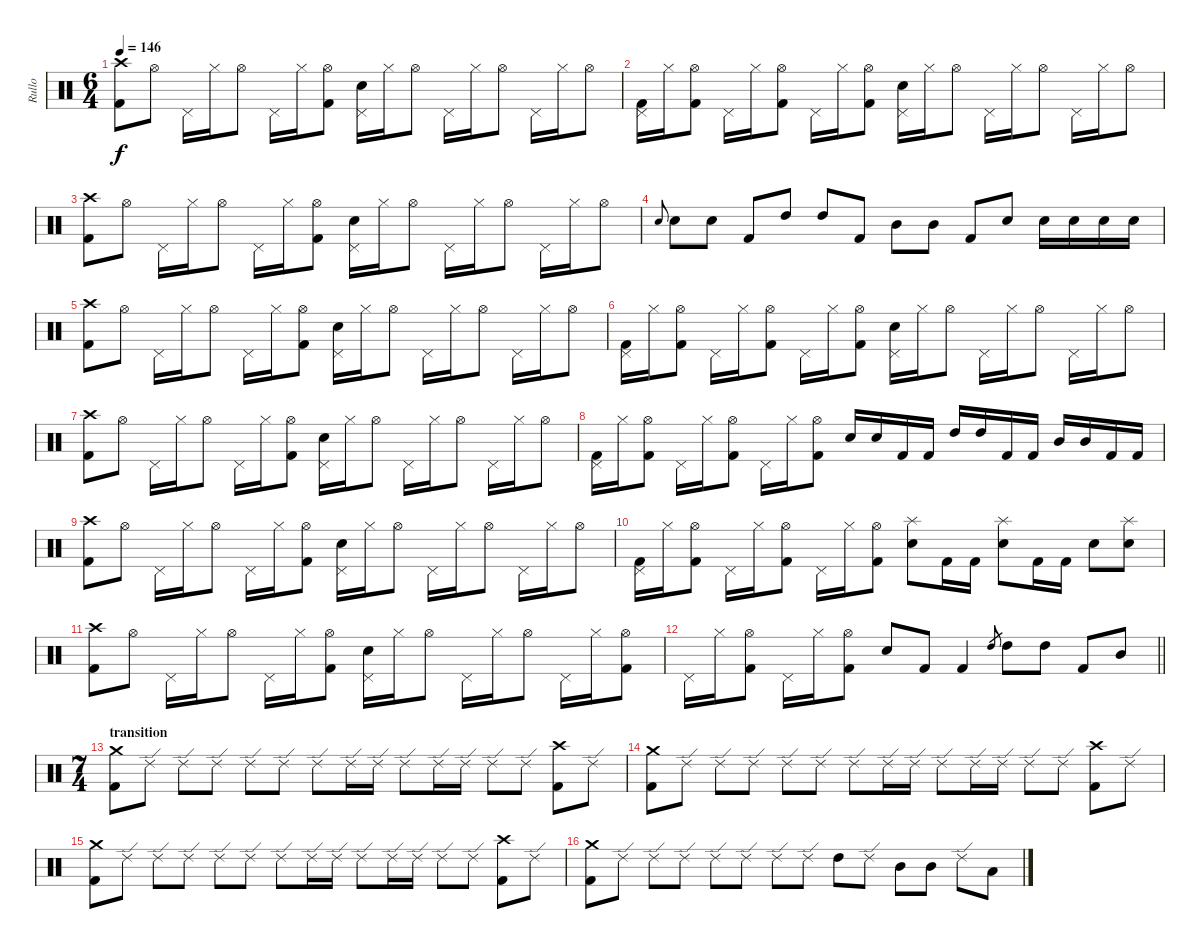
\track ("Rullo" "Rullo") {instrument percussion}
\staff {score}
\articulation defaults
\ts (6 4)
\tempo 146
\clef neutral
\ks c
("Crash high (hit)" "Kick (hit) 2").8{dy f} "Hi-Hat (open)".8 "Pedal Hi-Hat (hit)".16 "Hi-Hat (closed)".16 "Hi-Hat (open)".8 "Pedal Hi-Hat (hit)".16 "Hi-Hat (closed)".16 ("Hi-Hat (open)" "Kick (hit) 2").8 ("Pedal Hi-Hat (hit)" "Electric Snare (hit)").16 "Hi-Hat (closed)".16 "Hi-Hat (open)".8 "Pedal Hi-Hat (hit)".16 "Hi-Hat (closed)".16 "Hi-Hat (open)".8 "Pedal Hi-Hat (hit)".16 "Hi-Hat (closed)".16 "Hi-Hat (open)".8 |
("Pedal Hi-Hat (hit)" "Kick (hit) 2").16 "Hi-Hat (closed)".16 ("Hi-Hat (open)" "Kick (hit) 2").8 "Pedal Hi-Hat (hit)".16 "Hi-Hat (closed)".16 ("Hi-Hat (open)" "Kick (hit) 2").8 "Pedal Hi-Hat (hit)".16 "Hi-Hat (closed)".16 ("Hi-Hat (open)" "Kick (hit) 2").8 ("Pedal Hi-Hat (hit)" "Electric Snare (hit)").16 "Hi-Hat (closed)".16 "Hi-Hat (open)".8 "Pedal Hi-Hat (hit)".16 "Hi-Hat (closed)".16 "Hi-Hat (open)".8 "Pedal Hi-Hat (hit)".16 "Hi-Hat (closed)".16 "Hi-Hat (open)".8 |
("Crash high (hit)" "Kick (hit) 2").8 "Hi-Hat (open)".8 "Pedal Hi-Hat (hit)".16 "Hi-Hat (closed)".16 "Hi-Hat (open)".8 "Pedal Hi-Hat (hit)".16 "Hi-Hat (closed)".16 ("Hi-Hat (open)" "Kick (hit) 2").8 ("Pedal Hi-Hat (hit)" "Electric Snare (hit)").16 "Hi-Hat (closed)".16 "Hi-Hat (open)".8 "Pedal Hi-Hat (hit)".16 "Hi-Hat (closed)".16 "Hi-Hat (open)".8 "Pedal Hi-Hat (hit)".16 "Hi-Hat (closed)".16 "Hi-Hat (open)".8 |
"Electric Snare (hit)".8{gr onbeat} "Electric Snare (hit)".8 "Electric Snare (hit)".8 "Kick (hit) 2".8 "High Tom (hit)".8 "High Tom (hit)".8 "Kick (hit) 2".8 "Mid Tom (hit)".8 "Mid Tom (hit)".8 "Kick (hit) 2".8 "Electric Snare (hit)".8 "Electric Snare (hit)".16 "Electric Snare (hit)".16 "Electric Snare (hit)".16 "Electric Snare (hit)".16 |
("Crash high (hit)" "Kick (hit) 2").8 "Hi-Hat (open)".8 "Pedal Hi-Hat (hit)".16 "Hi-Hat (closed)".16 "Hi-Hat (open)".8 "Pedal Hi-Hat (hit)".16 "Hi-Hat (closed)".16 ("Hi-Hat (open)" "Kick (hit) 2").8 ("Pedal Hi-Hat (hit)" "Electric Snare (hit)").16 "Hi-Hat (closed)".16 "Hi-Hat (open)".8 "Pedal Hi-Hat (hit)".16 "Hi-Hat (closed)".16 "Hi-Hat (open)".8 "Pedal Hi-Hat (hit)".16 "Hi-Hat (closed)".16 "Hi-Hat (open)".8 |
("Pedal Hi-Hat (hit)" "Kick (hit) 2").16 "Hi-Hat (closed)".16 ("Hi-Hat (open)" "Kick (hit) 2").8 "Pedal Hi-Hat (hit)".16 "Hi-Hat (closed)".16 ("Hi-Hat (open)" "Kick (hit) 2").8 "Pedal Hi-Hat (hit)".16 "Hi-Hat (closed)".16 ("Hi-Hat (open)" "Kick (hit) 2").8 ("Pedal Hi-Hat (hit)" "Electric Snare (hit)").16 "Hi-Hat (closed)".16 "Hi-Hat (open)".8 "Pedal Hi-Hat (hit)".16 "Hi-Hat (closed)".16 "Hi-Hat (open)".8 "Pedal Hi-Hat (hit)".16 "Hi-Hat (closed)".16 "Hi-Hat (open)".8 |
("Crash high (hit)" "Kick (hit) 2").8 "Hi-Hat (open)".8 "Pedal Hi-Hat (hit)".16 "Hi-Hat (closed)".16 "Hi-Hat (open)".8 "Pedal Hi-Hat (hit)".16 "Hi-Hat (closed)".16 ("Hi-Hat (open)" "Kick (hit) 2").8 ("Pedal Hi-Hat (hit)" "Electric Snare (hit)").16 "Hi-Hat (closed)".16 "Hi-Hat (open)".8 "Pedal Hi-Hat (hit)".16 "Hi-Hat (closed)".16 "Hi-Hat (open)".8 "Pedal Hi-Hat (hit)".16 "Hi-Hat (closed)".16 "Hi-Hat (open)".8 |
("Pedal Hi-Hat (hit)" "Kick (hit) 2").16 "Hi-Hat (closed)".16 ("Hi-Hat (open)" "Kick (hit) 2").8 "Pedal Hi-Hat (hit)".16 "Hi-Hat (closed)".16 ("Hi-Hat (open)" "Kick (hit) 2").8 "Pedal Hi-Hat (hit)".16 "Hi-Hat (closed)".16 ("Hi-Hat (open)" "Kick (hit) 2").8 "Electric Snare (hit)".16 "Electric Snare (hit)".16 "Kick (hit) 2".16 "Kick (hit) 2".16 "High Tom (hit)".16 "High Tom (hit)".16 "Kick (hit) 2".16 "Kick (hit) 2".16 "Mid Tom (hit)".16 "Mid Tom (hit)".16 "Kick (hit) 2".16 "Kick (hit) 2".16 |
("Crash high (hit)" "Kick (hit) 2").8 "Hi-Hat (open)".8 "Pedal Hi-Hat (hit)".16 "Hi-Hat (closed)".16 "Hi-Hat (open)".8 "Pedal Hi-Hat (hit)".16 "Hi-Hat (closed)".16 ("Hi-Hat (open)" "Kick (hit) 2").8 ("Pedal Hi-Hat (hit)" "Electric Snare (hit)").16 "Hi-Hat (closed)".16 "Hi-Hat (open)".8 "Pedal Hi-Hat (hit)".16 "Hi-Hat (closed)".16 "Hi-Hat (open)".8 "Pedal Hi-Hat (hit)".16 "Hi-Hat (closed)".16 "Hi-Hat (open)".8 |
("Pedal Hi-Hat (hit)" "Kick (hit) 2").16 "Hi-Hat (closed)".16 ("Hi-Hat (open)" "Kick (hit) 2").8 "Pedal Hi-Hat (hit)".16 "Hi-Hat (closed)".16 ("Hi-Hat (open)" "Kick (hit) 2").8 "Pedal Hi-Hat (hit)".16 "Hi-Hat (closed)".16 ("Hi-Hat (open)" "Kick (hit) 2").8 ("Splash (hit)" "Electric Snare (hit)").8 "Kick (hit) 2".16 "Kick (hit) 2".16 ("Splash (hit)" "Electric Snare (hit)").8 "Kick (hit) 2".16 "Kick (hit) 2".16 "Electric Snare (hit)".8 ("Splash (hit)" "Electric Snare (hit)").8 |
("Crash high (hit)" "Kick (hit) 2").8 "Hi-Hat (open)".8 "Pedal Hi-Hat (hit)".16 "Hi-Hat (closed)".16 "Hi-Hat (open)".8 "Pedal Hi-Hat (hit)".16 "Hi-Hat (closed)".16 ("Hi-Hat (open)" "Kick (hit) 2").8 ("Pedal Hi-Hat (hit)" "Electric Snare (hit)").16 "Hi-Hat (closed)".16 "Hi-Hat (open)".8 "Pedal Hi-Hat (hit)".16 "Hi-Hat (closed)".16 "Hi-Hat (open)".8 "Pedal Hi-Hat (hit)".16 "Hi-Hat (closed)".16 ("Hi-Hat (open)" "Kick (hit) 2").8 |
\barLineRight lightlight "Pedal Hi-Hat (hit)".16 "Hi-Hat (closed)".16
("Hi-Hat (open)" "Kick (hit) 2").8 "Pedal Hi-Hat (hit)".16 "Hi-Hat (closed)".16 ("Hi-Hat (open)" "Kick (hit) 2").8 "Electric Snare (hit)".8 "Kick (hit) 2".8 "Kick (hit) 2".4 "High Tom (hit)".8{gr} "High Tom (hit)".8 "High Tom (hit)".8 "Kick (hit) 2".8 "Mid Tom (hit)".8 |
\ts (7 4)
\section ("" "transition")
("Crash medium (hit)" "Kick (hit) 2").8 "Ride (edge) 2".8 "Ride (edge) 2".8 "Ride (edge) 2".8 "Ride (edge) 2".8 "Ride (edge) 2".8 "Ride (edge) 2".8 "Ride (edge) 2".16 "Ride (edge) 2".16 "Ride (edge) 2".8 "Ride (edge) 2".16 "Ride (edge) 2".16 "Ride (edge) 2".8 "Ride (edge) 2".8 ("Crash high (hit)" "Kick (hit) 2").8 "Ride (edge) 2".8 |
("Crash medium (hit)" "Kick (hit) 2").8 "Ride (edge) 2".8 "Ride (edge) 2".8 "Ride (edge) 2".8 "Ride (edge) 2".8 "Ride (edge) 2".8 "Ride (edge) 2".8 "Ride (edge) 2".16 "Ride (edge) 2".16 "Ride (edge) 2".8 "Ride (edge) 2".16 "Ride (edge) 2".16 "Ride (edge) 2".8 "Ride (edge) 2".8 ("Crash high (hit)" "Kick (hit) 2").8 "Ride (edge) 2".8 |
("Crash medium (hit)" "Kick (hit) 2").8 "Ride (edge) 2".8 "Ride (edge) 2".8 "Ride (edge) 2".8 "Ride (edge) 2".8 "Ride (edge) 2".8 "Ride (edge) 2".8 "Ride (edge) 2".16 "Ride (edge) 2".16 "Ride (edge) 2".8 "Ride (edge) 2".16 "Ride (edge) 2".16 "Ride (edge) 2".8 "Ride (edge) 2".8 ("Crash high (hit)" "Kick (hit) 2").8 "Ride (edge) 2".8 |
("Crash medium (hit)" "Kick (hit) 2").8 "Ride (edge) 2".8 "Ride (edge) 2".8 "Ride (edge) 2".8 "Ride (edge) 2".8 "Ride (edge) 2".8 "Ride (edge) 2".8 "Ride (edge) 2".8 "High Tom (hit)".8 "Ride (edge) 2".8 "Mid Tom (hit)".8 "Mid Tom (hit)".8 "Ride (edge) 2".8 "Low Tom (hit)".8
